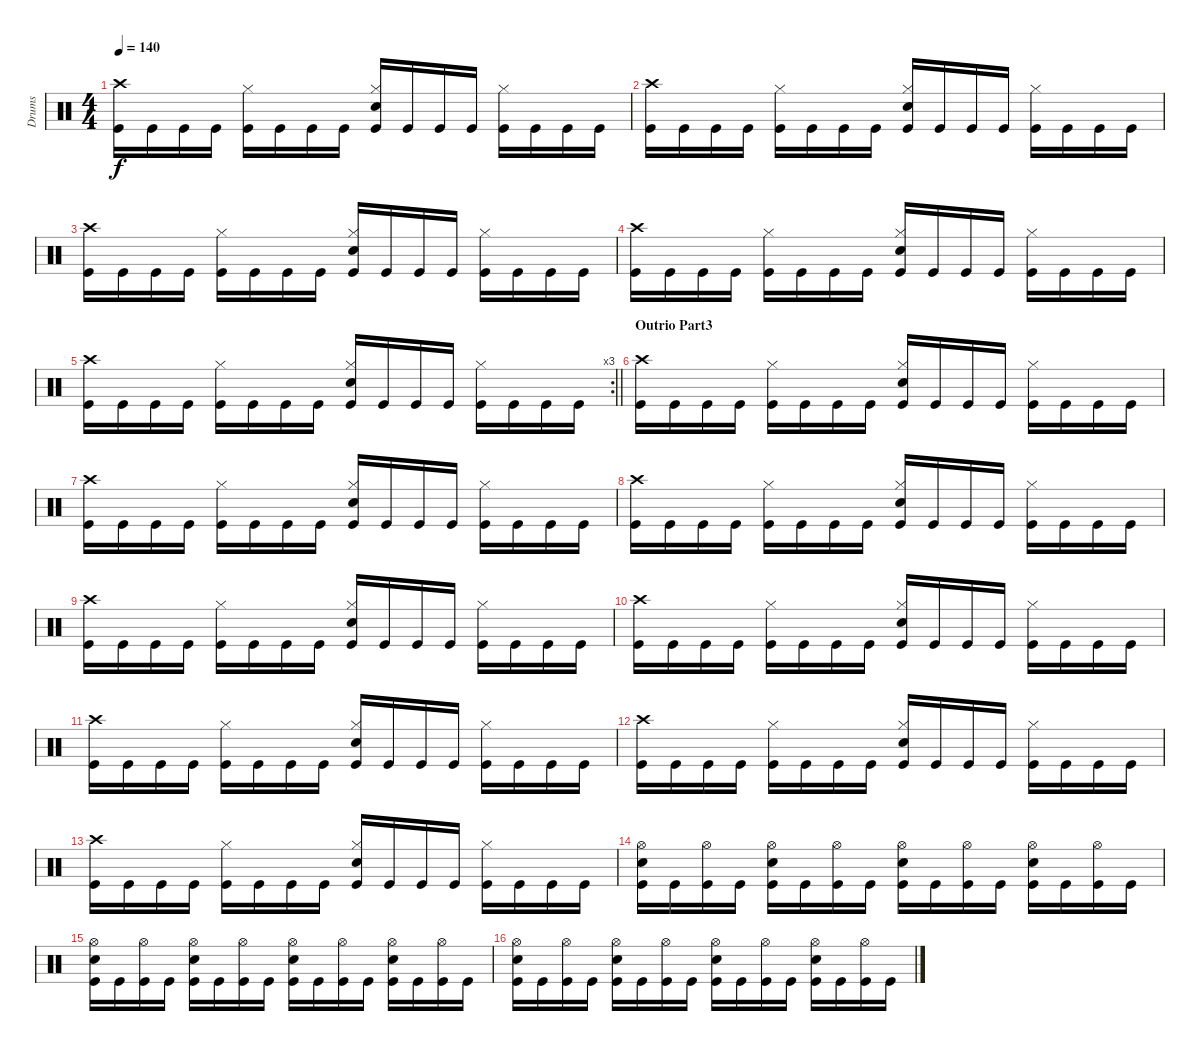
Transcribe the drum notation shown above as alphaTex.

\track ("Drums" "Drums") {instrument percussion}
\staff {score}
\articulation defaults
\ts (4 4)
\tempo 140
\clef neutral
\ks c
("Crash high (hit)" "Kick (hit)").16{dy f} "Kick (hit)".16 "Kick (hit)".16 "Kick (hit)".16 ("Hi-Hat (closed)" "Kick (hit)").16 "Kick (hit)".16 "Kick (hit)".16 "Kick (hit)".16 ("Snare (hit) 2" "Hi-Hat (closed)" "Kick (hit)").16 "Kick (hit)".16 "Kick (hit)".16 "Kick (hit)".16 ("Hi-Hat (closed)" "Kick (hit)").16 "Kick (hit)".16 "Kick (hit)".16 "Kick (hit)".16 |
("Crash high (hit)" "Kick (hit)").16 "Kick (hit)".16 "Kick (hit)".16 "Kick (hit)".16 ("Hi-Hat (closed)" "Kick (hit)").16 "Kick (hit)".16 "Kick (hit)".16 "Kick (hit)".16 ("Snare (hit) 2" "Hi-Hat (closed)" "Kick (hit)").16 "Kick (hit)".16 "Kick (hit)".16 "Kick (hit)".16 ("Hi-Hat (closed)" "Kick (hit)").16 "Kick (hit)".16 "Kick (hit)".16 "Kick (hit)".16 |
("Crash high (hit)" "Kick (hit)").16 "Kick (hit)".16 "Kick (hit)".16 "Kick (hit)".16 ("Hi-Hat (closed)" "Kick (hit)").16 "Kick (hit)".16 "Kick (hit)".16 "Kick (hit)".16 ("Snare (hit) 2" "Hi-Hat (closed)" "Kick (hit)").16 "Kick (hit)".16 "Kick (hit)".16 "Kick (hit)".16 ("Hi-Hat (closed)" "Kick (hit)").16 "Kick (hit)".16 "Kick (hit)".16 "Kick (hit)".16 |
("Crash high (hit)" "Kick (hit)").16 "Kick (hit)".16 "Kick (hit)".16 "Kick (hit)".16 ("Hi-Hat (closed)" "Kick (hit)").16 "Kick (hit)".16 "Kick (hit)".16 "Kick (hit)".16 ("Snare (hit) 2" "Hi-Hat (closed)" "Kick (hit)").16 "Kick (hit)".16 "Kick (hit)".16 "Kick (hit)".16 ("Hi-Hat (closed)" "Kick (hit)").16 "Kick (hit)".16 "Kick (hit)".16 "Kick (hit)".16 |
\rc 3
\barLineRight lightlight
("Crash high (hit)" "Kick (hit)").16 "Kick (hit)".16 "Kick (hit)".16 "Kick (hit)".16 ("Hi-Hat (closed)" "Kick (hit)").16 "Kick (hit)".16 "Kick (hit)".16 "Kick (hit)".16 ("Snare (hit) 2" "Hi-Hat (closed)" "Kick (hit)").16 "Kick (hit)".16 "Kick (hit)".16 "Kick (hit)".16 ("Hi-Hat (closed)" "Kick (hit)").16 "Kick (hit)".16 "Kick (hit)".16 "Kick (hit)".16 |
\section ("" "Outrio Part3")
("Crash high (hit)" "Kick (hit)").16 "Kick (hit)".16 "Kick (hit)".16 "Kick (hit)".16 ("Hi-Hat (closed)" "Kick (hit)").16 "Kick (hit)".16 "Kick (hit)".16 "Kick (hit)".16 ("Snare (hit) 2" "Hi-Hat (closed)" "Kick (hit)").16 "Kick (hit)".16 "Kick (hit)".16 "Kick (hit)".16 ("Hi-Hat (closed)" "Kick (hit)").16 "Kick (hit)".16 "Kick (hit)".16 "Kick (hit)".16 |
("Crash high (hit)" "Kick (hit)").16 "Kick (hit)".16 "Kick (hit)".16 "Kick (hit)".16 ("Hi-Hat (closed)" "Kick (hit)").16 "Kick (hit)".16 "Kick (hit)".16 "Kick (hit)".16 ("Snare (hit) 2" "Hi-Hat (closed)" "Kick (hit)").16 "Kick (hit)".16 "Kick (hit)".16 "Kick (hit)".16 ("Hi-Hat (closed)" "Kick (hit)").16 "Kick (hit)".16 "Kick (hit)".16 "Kick (hit)".16 |
("Crash high (hit)" "Kick (hit)").16 "Kick (hit)".16 "Kick (hit)".16 "Kick (hit)".16 ("Hi-Hat (closed)" "Kick (hit)").16 "Kick (hit)".16 "Kick (hit)".16 "Kick (hit)".16 ("Snare (hit) 2" "Hi-Hat (closed)" "Kick (hit)").16 "Kick (hit)".16 "Kick (hit)".16 "Kick (hit)".16 ("Hi-Hat (closed)" "Kick (hit)").16 "Kick (hit)".16 "Kick (hit)".16 "Kick (hit)".16 |
("Crash high (hit)" "Kick (hit)").16 "Kick (hit)".16 "Kick (hit)".16 "Kick (hit)".16 ("Hi-Hat (closed)" "Kick (hit)").16 "Kick (hit)".16 "Kick (hit)".16 "Kick (hit)".16 ("Snare (hit) 2" "Hi-Hat (closed)" "Kick (hit)").16 "Kick (hit)".16 "Kick (hit)".16 "Kick (hit)".16 ("Hi-Hat (closed)" "Kick (hit)").16 "Kick (hit)".16 "Kick (hit)".16 "Kick (hit)".16 |
("Crash high (hit)" "Kick (hit)").16 "Kick (hit)".16 "Kick (hit)".16 "Kick (hit)".16 ("Hi-Hat (closed)" "Kick (hit)").16 "Kick (hit)".16 "Kick (hit)".16 "Kick (hit)".16 ("Snare (hit) 2" "Hi-Hat (closed)" "Kick (hit)").16 "Kick (hit)".16 "Kick (hit)".16 "Kick (hit)".16 ("Hi-Hat (closed)" "Kick (hit)").16 "Kick (hit)".16 "Kick (hit)".16 "Kick (hit)".16 |
("Crash high (hit)" "Kick (hit)").16 "Kick (hit)".16 "Kick (hit)".16 "Kick (hit)".16 ("Hi-Hat (closed)" "Kick (hit)").16 "Kick (hit)".16 "Kick (hit)".16 "Kick (hit)".16 ("Snare (hit) 2" "Hi-Hat (closed)" "Kick (hit)").16 "Kick (hit)".16 "Kick (hit)".16 "Kick (hit)".16 ("Hi-Hat (closed)" "Kick (hit)").16 "Kick (hit)".16 "Kick (hit)".16 "Kick (hit)".16 |
("Crash high (hit)" "Kick (hit)").16 "Kick (hit)".16 "Kick (hit)".16 "Kick (hit)".16 ("Hi-Hat (closed)" "Kick (hit)").16 "Kick (hit)".16 "Kick (hit)".16 "Kick (hit)".16 ("Snare (hit) 2" "Hi-Hat (closed)" "Kick (hit)").16 "Kick (hit)".16 "Kick (hit)".16 "Kick (hit)".16 ("Hi-Hat (closed)" "Kick (hit)").16 "Kick (hit)".16 "Kick (hit)".16 "Kick (hit)".16 |
("Crash high (hit)" "Kick (hit)").16 "Kick (hit)".16 "Kick (hit)".16 "Kick (hit)".16 ("Hi-Hat (closed)" "Kick (hit)").16 "Kick (hit)".16 "Kick (hit)".16 "Kick (hit)".16 ("Snare (hit) 2" "Hi-Hat (closed)" "Kick (hit)").16 "Kick (hit)".16 "Kick (hit)".16 "Kick (hit)".16 ("Hi-Hat (closed)" "Kick (hit)").16 "Kick (hit)".16 "Kick (hit)".16 "Kick (hit)".16 |
("Snare (hit) 2" "Hi-Hat (open)" "Kick (hit)").16 "Kick (hit)".16 ("Hi-Hat (open)" "Kick (hit)").16 "Kick (hit)".16 ("Snare (hit) 2" "Hi-Hat (open)" "Kick (hit)").16 "Kick (hit)".16 ("Hi-Hat (open)" "Kick (hit)").16 "Kick (hit)".16 ("Snare (hit) 2" "Hi-Hat (open)" "Kick (hit)").16 "Kick (hit)".16 ("Hi-Hat (open)" "Kick (hit)").16 "Kick (hit)".16 ("Snare (hit) 2" "Hi-Hat (open)" "Kick (hit)").16 "Kick (hit)".16 ("Hi-Hat (open)" "Kick (hit)").16 "Kick (hit)".16 |
("Snare (hit) 2" "Hi-Hat (open)" "Kick (hit)").16 "Kick (hit)".16 ("Hi-Hat (open)" "Kick (hit)").16 "Kick (hit)".16 ("Snare (hit) 2" "Hi-Hat (open)" "Kick (hit)").16 "Kick (hit)".16 ("Hi-Hat (open)" "Kick (hit)").16 "Kick (hit)".16 ("Snare (hit) 2" "Hi-Hat (open)" "Kick (hit)").16 "Kick (hit)".16 ("Hi-Hat (open)" "Kick (hit)").16 "Kick (hit)".16 ("Snare (hit) 2" "Hi-Hat (open)" "Kick (hit)").16 "Kick (hit)".16 ("Hi-Hat (open)" "Kick (hit)").16 "Kick (hit)".16 |
("Snare (hit) 2" "Hi-Hat (open)" "Kick (hit)").16 "Kick (hit)".16 ("Hi-Hat (open)" "Kick (hit)").16 "Kick (hit)".16 ("Snare (hit) 2" "Hi-Hat (open)" "Kick (hit)").16 "Kick (hit)".16 ("Hi-Hat (open)" "Kick (hit)").16 "Kick (hit)".16 ("Snare (hit) 2" "Hi-Hat (open)" "Kick (hit)").16 "Kick (hit)".16 ("Hi-Hat (open)" "Kick (hit)").16 "Kick (hit)".16 ("Snare (hit) 2" "Hi-Hat (open)" "Kick (hit)").16 "Kick (hit)".16 ("Hi-Hat (open)" "Kick (hit)").16 "Kick (hit)".16
